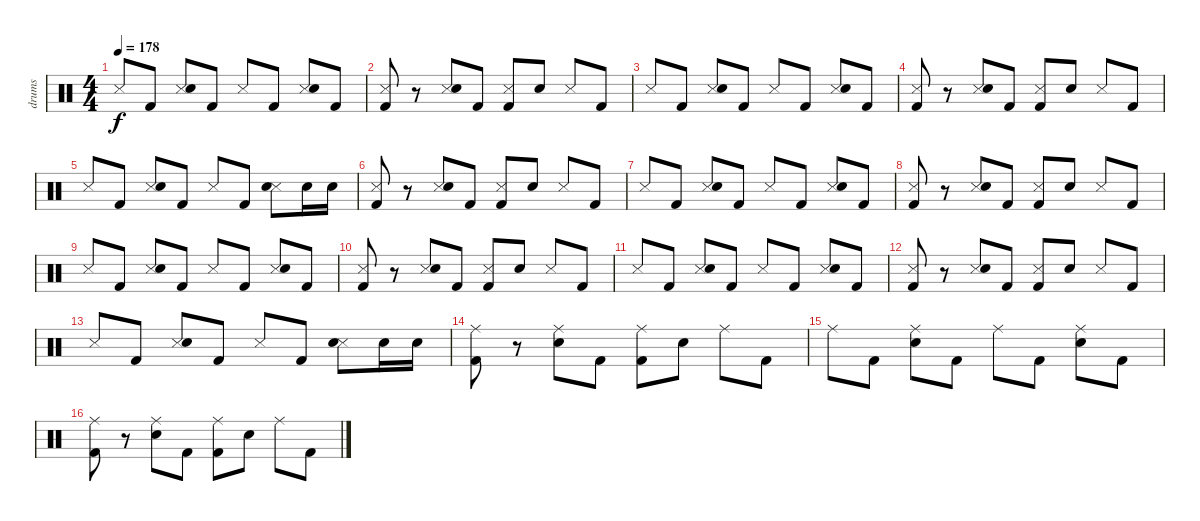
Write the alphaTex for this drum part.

\track ("drums" "drums") {instrument percussion}
\staff {score}
\articulation defaults
\ts (4 4)
\tempo 178
\clef neutral
\ks c "Snare (side stick) 3".8{dy f} "Kick (hit) 2".8
("Snare (side stick) 3" "Snare (hit) 2").8 "Kick (hit) 2".8 "Snare (side stick) 3".8 "Kick (hit) 2".8 ("Snare (side stick) 3" "Snare (hit) 2").8 "Kick (hit) 2".8 |
("Snare (side stick) 3" "Kick (hit) 2").8 r.8 ("Snare (side stick) 3" "Snare (hit) 2").8 "Kick (hit) 2".8 ("Snare (side stick) 3" "Kick (hit) 2").8 "Snare (hit) 2".8 "Snare (side stick) 3".8 "Kick (hit) 2".8 |
"Snare (side stick) 3".8 "Kick (hit) 2".8 ("Snare (side stick) 3" "Snare (hit) 2").8 "Kick (hit) 2".8 "Snare (side stick) 3".8 "Kick (hit) 2".8 ("Snare (side stick) 3" "Snare (hit) 2").8 "Kick (hit) 2".8 |
("Snare (side stick) 3" "Kick (hit) 2").8 r.8 ("Snare (side stick) 3" "Snare (hit) 2").8 "Kick (hit) 2".8 ("Snare (side stick) 3" "Kick (hit) 2").8 "Snare (hit) 2".8 "Snare (side stick) 3".8 "Kick (hit) 2".8 |
"Snare (side stick) 3".8 "Kick (hit) 2".8 ("Snare (side stick) 3" "Snare (hit) 2").8 "Kick (hit) 2".8 "Snare (side stick) 3".8 "Kick (hit) 2".8 ("Snare (side stick) 3" "Snare (hit) 2").8 "Snare (hit) 2".16 "Snare (hit) 2".16 |
("Snare (side stick) 3" "Kick (hit) 2").8 r.8 ("Snare (side stick) 3" "Snare (hit) 2").8 "Kick (hit) 2".8 ("Snare (side stick) 3" "Kick (hit) 2").8 "Snare (hit) 2".8 "Snare (side stick) 3".8 "Kick (hit) 2".8 |
"Snare (side stick) 3".8 "Kick (hit) 2".8 ("Snare (side stick) 3" "Snare (hit) 2").8 "Kick (hit) 2".8 "Snare (side stick) 3".8 "Kick (hit) 2".8 ("Snare (side stick) 3" "Snare (hit) 2").8 "Kick (hit) 2".8 |
("Snare (side stick) 3" "Kick (hit) 2").8 r.8 ("Snare (side stick) 3" "Snare (hit) 2").8 "Kick (hit) 2".8 ("Snare (side stick) 3" "Kick (hit) 2").8 "Snare (hit) 2".8 "Snare (side stick) 3".8 "Kick (hit) 2".8 |
"Snare (side stick) 3".8 "Kick (hit) 2".8 ("Snare (side stick) 3" "Snare (hit) 2").8 "Kick (hit) 2".8 "Snare (side stick) 3".8 "Kick (hit) 2".8 ("Snare (side stick) 3" "Snare (hit) 2").8 "Kick (hit) 2".8 |
("Snare (side stick) 3" "Kick (hit) 2").8 r.8 ("Snare (side stick) 3" "Snare (hit) 2").8 "Kick (hit) 2".8 ("Snare (side stick) 3" "Kick (hit) 2").8 "Snare (hit) 2".8 "Snare (side stick) 3".8 "Kick (hit) 2".8 |
"Snare (side stick) 3".8 "Kick (hit) 2".8 ("Snare (side stick) 3" "Snare (hit) 2").8 "Kick (hit) 2".8 "Snare (side stick) 3".8 "Kick (hit) 2".8 ("Snare (side stick) 3" "Snare (hit) 2").8 "Kick (hit) 2".8 |
("Snare (side stick) 3" "Kick (hit) 2").8 r.8 ("Snare (side stick) 3" "Snare (hit) 2").8 "Kick (hit) 2".8 ("Snare (side stick) 3" "Kick (hit) 2").8 "Snare (hit) 2".8 "Snare (side stick) 3".8 "Kick (hit) 2".8 |
"Snare (side stick) 3".8 "Kick (hit) 2".8 ("Snare (side stick) 3" "Snare (hit) 2").8 "Kick (hit) 2".8 "Snare (side stick) 3".8 "Kick (hit) 2".8 ("Snare (side stick) 3" "Snare (hit) 2").8 "Snare (hit) 2".16 "Snare (hit) 2".16 |
("Ride (middle)" "Kick (hit) 2").8 r.8 ("Ride (middle)" "Snare (hit) 2").8 "Kick (hit) 2".8 ("Ride (middle)" "Kick (hit) 2").8 "Snare (hit) 2".8 "Ride (middle)".8 "Kick (hit) 2".8 |
"Ride (middle)".8 "Kick (hit) 2".8 ("Ride (middle)" "Snare (hit) 2").8 "Kick (hit) 2".8 "Ride (middle)".8 "Kick (hit) 2".8 ("Ride (middle)" "Snare (hit) 2").8 "Kick (hit) 2".8 |
("Ride (middle)" "Kick (hit) 2").8 r.8 ("Ride (middle)" "Snare (hit) 2").8 "Kick (hit) 2".8 ("Ride (middle)" "Kick (hit) 2").8 "Snare (hit) 2".8 "Ride (middle)".8 "Kick (hit) 2".8
